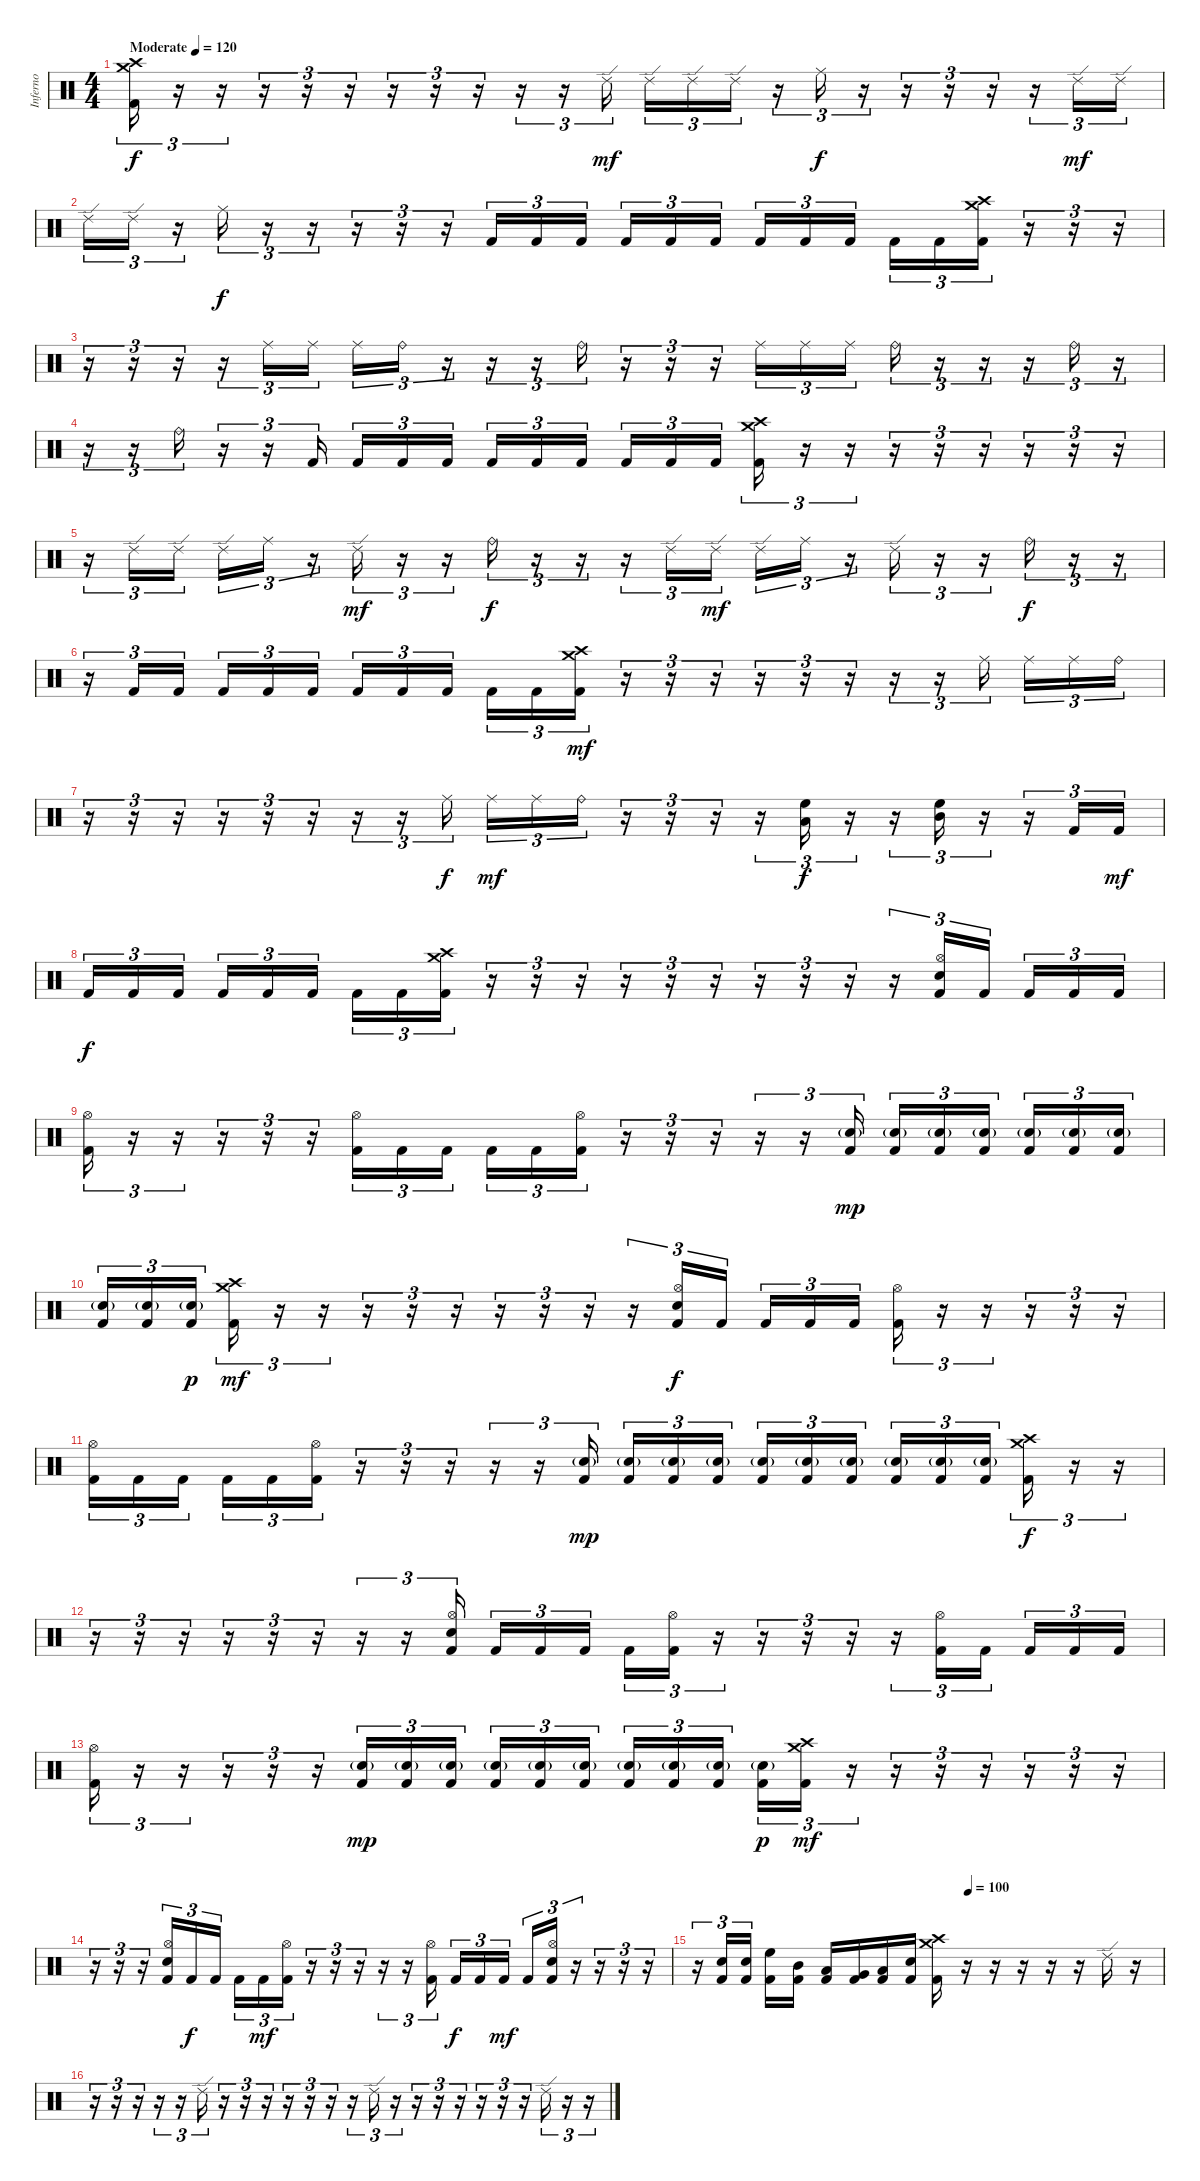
\track ("Inferno" "Inferno") {instrument percussion}
\staff {score}
\articulation defaults
\ts (4 4)
\tempo (120 "Moderate")
\clef neutral
\ks c
("Crash medium (hit)" "Crash high (hit)" "Kick (hit) 2").16{tu (3 2) dy f} r.16{tu (3 2)} r.16{tu (3 2)} r.16{tu (3 2)} r.16{tu (3 2)} r.16{tu (3 2)} r.16{tu (3 2)} r.16{tu (3 2)} r.16{tu (3 2)} r.16{tu (3 2)} r.16{tu (3 2)} "Ride (edge) 2".16{tu (3 2) dy mf} "Ride (edge) 2".16{tu (3 2)} "Ride (edge) 2".16{tu (3 2)} "Ride (edge) 2".16{tu (3 2)} r.16{tu (3 2)} "Ride (middle)".16{tu (3 2) dy f} r.16{tu (3 2)} r.16{tu (3 2)} r.16{tu (3 2)} r.16{tu (3 2)} r.16{tu (3 2)} "Ride (edge) 2".16{tu (3 2) dy mf} "Ride (edge) 2".16{tu (3 2)} |
"Ride (edge) 2".16{tu (3 2)} "Ride (edge) 2".16{tu (3 2)} r.16{tu (3 2)} "Ride (middle)".16{tu (3 2) dy f} r.16{tu (3 2)} r.16{tu (3 2)} r.16{tu (3 2)} r.16{tu (3 2)} r.16{tu (3 2)} "Kick (hit) 2".16{tu (3 2)} "Kick (hit) 2".16{tu (3 2)} "Kick (hit) 2".16{tu (3 2)} "Kick (hit) 2".16{tu (3 2)} "Kick (hit) 2".16{tu (3 2)} "Kick (hit) 2".16{tu (3 2) beam splitsecondary} "Kick (hit) 2".16{tu (3 2)} "Kick (hit) 2".16{tu (3 2)} "Kick (hit) 2".16{tu (3 2)} "Kick (hit) 2".16{tu (3 2)} "Kick (hit) 2".16{tu (3 2)} ("Crash medium (hit)" "Crash high (hit)" "Kick (hit) 2").16{tu (3 2)} r.16{tu (3 2)} r.16{tu (3 2)} r.16{tu (3 2)} |
r.16{tu (3 2)} r.16{tu (3 2)} r.16{tu (3 2)} r.16{tu (3 2)} "Ride (middle)".16{tu (3 2)} "Ride (middle)".16{tu (3 2)} "Ride (middle)".16{tu (3 2)} "Ride (bell)".16{tu (3 2)} r.16{tu (3 2)} r.16{tu (3 2)} r.16{tu (3 2)} "Ride (bell)".16{tu (3 2)} r.16{tu (3 2)} r.16{tu (3 2)} r.16{tu (3 2)} "Ride (middle)".16{tu (3 2)} "Ride (middle)".16{tu (3 2)} "Ride (middle)".16{tu (3 2)} "Ride (bell)".16{tu (3 2)} r.16{tu (3 2)} r.16{tu (3 2)} r.16{tu (3 2)} "Ride (bell)".16{tu (3 2)} r.16{tu (3 2)} |
r.16{tu (3 2)} r.16{tu (3 2)} "Ride (bell)".16{tu (3 2)} r.16{tu (3 2)} r.16{tu (3 2)} "Kick (hit) 2".16{tu (3 2)} "Kick (hit) 2".16{tu (3 2)} "Kick (hit) 2".16{tu (3 2)} "Kick (hit) 2".16{tu (3 2) beam splitsecondary} "Kick (hit) 2".16{tu (3 2)} "Kick (hit) 2".16{tu (3 2)} "Kick (hit) 2".16{tu (3 2)} "Kick (hit) 2".16{tu (3 2)} "Kick (hit) 2".16{tu (3 2)} "Kick (hit) 2".16{tu (3 2) beam splitsecondary} ("Crash medium (hit)" "Crash high (hit)" "Kick (hit) 2").16{tu (3 2)} r.16{tu (3 2)} r.16{tu (3 2)} r.16{tu (3 2)} r.16{tu (3 2)} r.16{tu (3 2)} r.16{tu (3 2)} r.16{tu (3 2)} r.16{tu (3 2)} |
r.16{tu (3 2)} "Ride (edge) 2".16{tu (3 2)} "Ride (edge) 2".16{tu (3 2) beam splitsecondary} "Ride (edge) 2".16{tu (3 2)} "Ride (middle)".16{tu (3 2)} r.16{tu (3 2)} "Ride (edge) 2".16{tu (3 2) dy mf} r.16{tu (3 2)} r.16{tu (3 2)} "Ride (bell)".16{tu (3 2) dy f} r.16{tu (3 2)} r.16{tu (3 2)} r.16{tu (3 2)} "Ride (edge) 2".16{tu (3 2)} "Ride (edge) 2".16{tu (3 2) dy mf beam splitsecondary} "Ride (edge) 2".16{tu (3 2)} "Ride (middle)".16{tu (3 2)} r.16{tu (3 2)} "Ride (edge) 2".16{tu (3 2)} r.16{tu (3 2)} r.16{tu (3 2)} "Ride (bell)".16{tu (3 2) dy f} r.16{tu (3 2)} r.16{tu (3 2)} |
r.16{tu (3 2)} "Kick (hit) 2".16{tu (3 2)} "Kick (hit) 2".16{tu (3 2) beam splitsecondary} "Kick (hit) 2".16{tu (3 2)} "Kick (hit) 2".16{tu (3 2)} "Kick (hit) 2".16{tu (3 2)} "Kick (hit) 2".16{tu (3 2)} "Kick (hit) 2".16{tu (3 2)} "Kick (hit) 2".16{tu (3 2) beam splitsecondary} "Kick (hit) 2".16{tu (3 2)} "Kick (hit) 2".16{tu (3 2)} ("Crash medium (hit)" "Crash high (hit)" "Kick (hit) 2").16{tu (3 2) dy mf} r.16{tu (3 2)} r.16{tu (3 2)} r.16{tu (3 2)} r.16{tu (3 2)} r.16{tu (3 2)} r.16{tu (3 2)} r.16{tu (3 2)} r.16{tu (3 2)} "Ride (middle)".16{tu (3 2) beam splitsecondary} "Ride (middle)".16{tu (3 2)} "Ride (middle)".16{tu (3 2)} "Ride (bell)".16{tu (3 2)} |
r.16{tu (3 2)} r.16{tu (3 2)} r.16{tu (3 2)} r.16{tu (3 2)} r.16{tu (3 2)} r.16{tu (3 2)} r.16{tu (3 2)} r.16{tu (3 2)} "Ride (middle)".16{tu (3 2) dy f beam splitsecondary} "Ride (middle)".16{tu (3 2) dy mf} "Ride (middle)".16{tu (3 2)} "Ride (bell)".16{tu (3 2)} r.16{tu (3 2)} r.16{tu (3 2)} r.16{tu (3 2)} r.16{tu (3 2)} ("High Floor Tom (hit)" "Low Tom (hit)").16{tu (3 2) dy f} r.16{tu (3 2)} r.16{tu (3 2)} ("High Floor Tom (hit)" "Mid Tom (hit)").16{tu (3 2)} r.16{tu (3 2)} r.16{tu (3 2)} "Kick (hit) 2".16{tu (3 2)} "Kick (hit) 2".16{tu (3 2) dy mf} |
"Kick (hit) 2".16{tu (3 2) dy f} "Kick (hit) 2".16{tu (3 2)} "Kick (hit) 2".16{tu (3 2) beam splitsecondary} "Kick (hit) 2".16{tu (3 2)} "Kick (hit) 2".16{tu (3 2)} "Kick (hit) 2".16{tu (3 2)} "Kick (hit) 2".16{tu (3 2)} "Kick (hit) 2".16{tu (3 2)} ("Crash medium (hit)" "Crash high (hit)" "Kick (hit) 2").16{tu (3 2)} r.16{tu (3 2)} r.16{tu (3 2)} r.16{tu (3 2)} r.16{tu (3 2)} r.16{tu (3 2)} r.16{tu (3 2)} r.16{tu (3 2)} r.16{tu (3 2)} r.16{tu (3 2)} r.16{tu (3 2)} ("Hi-Hat (open)" "Electric Snare (hit)" "Kick (hit) 2").16{tu (3 2)} "Kick (hit) 2".16{tu (3 2) beam splitsecondary} "Kick (hit) 2".16{tu (3 2)} "Kick (hit) 2".16{tu (3 2)} "Kick (hit) 2".16{tu (3 2)} |
("Hi-Hat (open)" "Kick (hit) 2").16{tu (3 2)} r.16{tu (3 2)} r.16{tu (3 2)} r.16{tu (3 2)} r.16{tu (3 2)} r.16{tu (3 2)} ("Hi-Hat (open)" "Kick (hit) 2").16{tu (3 2)} "Kick (hit) 2".16{tu (3 2)} "Kick (hit) 2".16{tu (3 2) beam splitsecondary} "Kick (hit) 2".16{tu (3 2)} "Kick (hit) 2".16{tu (3 2)} ("Hi-Hat (open)" "Kick (hit) 2").16{tu (3 2)} r.16{tu (3 2)} r.16{tu (3 2)} r.16{tu (3 2)} r.16{tu (3 2)} r.16{tu (3 2)} ("Electric Snare (hit)"{g} "Kick (hit) 2").16{tu (3 2) dy mp} ("Electric Snare (hit)"{g} "Kick (hit) 2").16{tu (3 2)} ("Electric Snare (hit)"{g} "Kick (hit) 2").16{tu (3 2)} ("Electric Snare (hit)"{g} "Kick (hit) 2").16{tu (3 2) beam splitsecondary} ("Electric Snare (hit)"{g} "Kick (hit) 2").16{tu (3 2)} ("Electric Snare (hit)"{g} "Kick (hit) 2").16{tu (3 2)} ("Electric Snare (hit)"{g} "Kick (hit) 2").16{tu (3 2)} |
("Electric Snare (hit)"{g} "Kick (hit) 2").16{tu (3 2)} ("Electric Snare (hit)"{g} "Kick (hit) 2").16{tu (3 2)} ("Electric Snare (hit)"{g} "Kick (hit) 2").16{tu (3 2) dy p beam splitsecondary} ("Crash medium (hit)" "Crash high (hit)" "Kick (hit) 2").16{tu (3 2) dy mf} r.16{tu (3 2)} r.16{tu (3 2)} r.16{tu (3 2)} r.16{tu (3 2)} r.16{tu (3 2)} r.16{tu (3 2)} r.16{tu (3 2)} r.16{tu (3 2)} r.16{tu (3 2)} ("Hi-Hat (open)" "Electric Snare (hit)" "Kick (hit) 2").16{tu (3 2) dy f} "Kick (hit) 2".16{tu (3 2) beam splitsecondary} "Kick (hit) 2".16{tu (3 2)} "Kick (hit) 2".16{tu (3 2)} "Kick (hit) 2".16{tu (3 2)} ("Hi-Hat (open)" "Kick (hit) 2").16{tu (3 2)} r.16{tu (3 2)} r.16{tu (3 2)} r.16{tu (3 2)} r.16{tu (3 2)} r.16{tu (3 2)} |
("Hi-Hat (open)" "Kick (hit) 2").16{tu (3 2)} "Kick (hit) 2".16{tu (3 2)} "Kick (hit) 2".16{tu (3 2) beam splitsecondary} "Kick (hit) 2".16{tu (3 2)} "Kick (hit) 2".16{tu (3 2)} ("Hi-Hat (open)" "Kick (hit) 2").16{tu (3 2)} r.16{tu (3 2)} r.16{tu (3 2)} r.16{tu (3 2)} r.16{tu (3 2)} r.16{tu (3 2)} ("Electric Snare (hit)"{g} "Kick (hit) 2").16{tu (3 2) dy mp} ("Electric Snare (hit)"{g} "Kick (hit) 2").16{tu (3 2)} ("Electric Snare (hit)"{g} "Kick (hit) 2").16{tu (3 2)} ("Electric Snare (hit)"{g} "Kick (hit) 2").16{tu (3 2) beam splitsecondary} ("Electric Snare (hit)"{g} "Kick (hit) 2").16{tu (3 2)} ("Electric Snare (hit)"{g} "Kick (hit) 2").16{tu (3 2)} ("Electric Snare (hit)"{g} "Kick (hit) 2").16{tu (3 2)} ("Electric Snare (hit)"{g} "Kick (hit) 2").16{tu (3 2)} ("Electric Snare (hit)"{g} "Kick (hit) 2").16{tu (3 2)} ("Electric Snare (hit)"{g} "Kick (hit) 2").16{tu (3 2) beam splitsecondary} ("Crash medium (hit)" "Crash high (hit)" "Kick (hit) 2").16{tu (3 2) dy f} r.16{tu (3 2)} r.16{tu (3 2)} |
r.16{tu (3 2)} r.16{tu (3 2)} r.16{tu (3 2)} r.16{tu (3 2)} r.16{tu (3 2)} r.16{tu (3 2)} r.16{tu (3 2)} r.16{tu (3 2)} ("Hi-Hat (open)" "Electric Snare (hit)" "Kick (hit) 2").16{tu (3 2) beam splitsecondary} "Kick (hit) 2".16{tu (3 2)} "Kick (hit) 2".16{tu (3 2)} "Kick (hit) 2".16{tu (3 2)} "Kick (hit) 2".16{tu (3 2)} ("Hi-Hat (open)" "Kick (hit) 2").16{tu (3 2)} r.16{tu (3 2)} r.16{tu (3 2)} r.16{tu (3 2)} r.16{tu (3 2)} r.16{tu (3 2)} ("Hi-Hat (open)" "Kick (hit) 2").16{tu (3 2)} "Kick (hit) 2".16{tu (3 2) beam splitsecondary} "Kick (hit) 2".16{tu (3 2)} "Kick (hit) 2".16{tu (3 2)} "Kick (hit) 2".16{tu (3 2)} |
("Hi-Hat (open)" "Kick (hit) 2").16{tu (3 2)} r.16{tu (3 2)} r.16{tu (3 2)} r.16{tu (3 2)} r.16{tu (3 2)} r.16{tu (3 2)} ("Electric Snare (hit)"{g} "Kick (hit) 2").16{tu (3 2) dy mp} ("Electric Snare (hit)"{g} "Kick (hit) 2").16{tu (3 2)} ("Electric Snare (hit)"{g} "Kick (hit) 2").16{tu (3 2) beam splitsecondary} ("Electric Snare (hit)"{g} "Kick (hit) 2").16{tu (3 2)} ("Electric Snare (hit)"{g} "Kick (hit) 2").16{tu (3 2)} ("Electric Snare (hit)"{g} "Kick (hit) 2").16{tu (3 2)} ("Electric Snare (hit)"{g} "Kick (hit) 2").16{tu (3 2)} ("Electric Snare (hit)"{g} "Kick (hit) 2").16{tu (3 2)} ("Electric Snare (hit)"{g} "Kick (hit) 2").16{tu (3 2) beam splitsecondary} ("Electric Snare (hit)"{g} "Kick (hit) 2").16{tu (3 2) dy p} ("Crash medium (hit)" "Crash high (hit)" "Kick (hit) 2").16{tu (3 2) dy mf} r.16{tu (3 2)} r.16{tu (3 2)} r.16{tu (3 2)} r.16{tu (3 2)} r.16{tu (3 2)} r.16{tu (3 2)} r.16{tu (3 2)} |
r.16{tu (3 2)} r.16{tu (3 2)} r.16{tu (3 2)} ("Hi-Hat (open)" "Electric Snare (hit)" "Kick (hit) 2").16{tu (3 2)} "Kick (hit) 2".16{tu (3 2) dy f} "Kick (hit) 2".16{tu (3 2)} "Kick (hit) 2".16{tu (3 2)} "Kick (hit) 2".16{tu (3 2) dy mf} ("Hi-Hat (open)" "Kick (hit) 2").16{tu (3 2)} r.16{tu (3 2)} r.16{tu (3 2)} r.16{tu (3 2)} r.16{tu (3 2)} r.16{tu (3 2)} ("Hi-Hat (open)" "Kick (hit) 2").16{tu (3 2) beam splitsecondary} "Kick (hit) 2".16{tu (3 2) dy f} "Kick (hit) 2".16{tu (3 2)} "Kick (hit) 2".16{tu (3 2) dy mf} "Kick (hit) 2".16{tu (3 2)} ("Hi-Hat (open)" "Electric Snare (hit)" "Kick (hit) 2").16{tu (3 2)} r.16{tu (3 2)} r.16{tu (3 2)} r.16{tu (3 2)} r.16{tu (3 2)} |
\tempo (100 0.5833333333333334)
r.16{tu (3 2)} ("Electric Snare (hit)" "Kick (hit) 2").16{tu (3 2)} ("Electric Snare (hit)" "Kick (hit) 2").16{tu (3 2) beam splitsecondary} ("High Floor Tom (hit)" "Kick (hit) 2").16 ("Mid Tom (hit)" "Kick (hit) 2").16 ("Low Tom (hit)" "Kick (hit) 2").16 ("Very Low Tom (hit)" "Kick (hit) 2").16 ("Low Floor Tom (hit)" "Kick (hit) 2").16 ("Snare (hit) 2" "Kick (hit) 2").16 ("Crash medium (hit)" "Crash high (hit)" "Kick (hit) 2").16 r.16 r.16 r.16 r.16 r.16 "Ride (edge) 2".16 r.16 |
r.16{tu (3 2)} r.16{tu (3 2)} r.16{tu (3 2)} r.16{tu (3 2)} r.16{tu (3 2)} "Ride (edge) 2".16{tu (3 2)} r.16{tu (3 2)} r.16{tu (3 2)} r.16{tu (3 2)} r.16{tu (3 2)} r.16{tu (3 2)} r.16{tu (3 2)} r.16{tu (3 2)} "Ride (edge) 2".16{tu (3 2)} r.16{tu (3 2)} r.16{tu (3 2)} r.16{tu (3 2)} r.16{tu (3 2)} r.16{tu (3 2)} r.16{tu (3 2)} r.16{tu (3 2)} "Ride (edge) 2".16{tu (3 2)} r.16{tu (3 2)} r.16{tu (3 2)}
